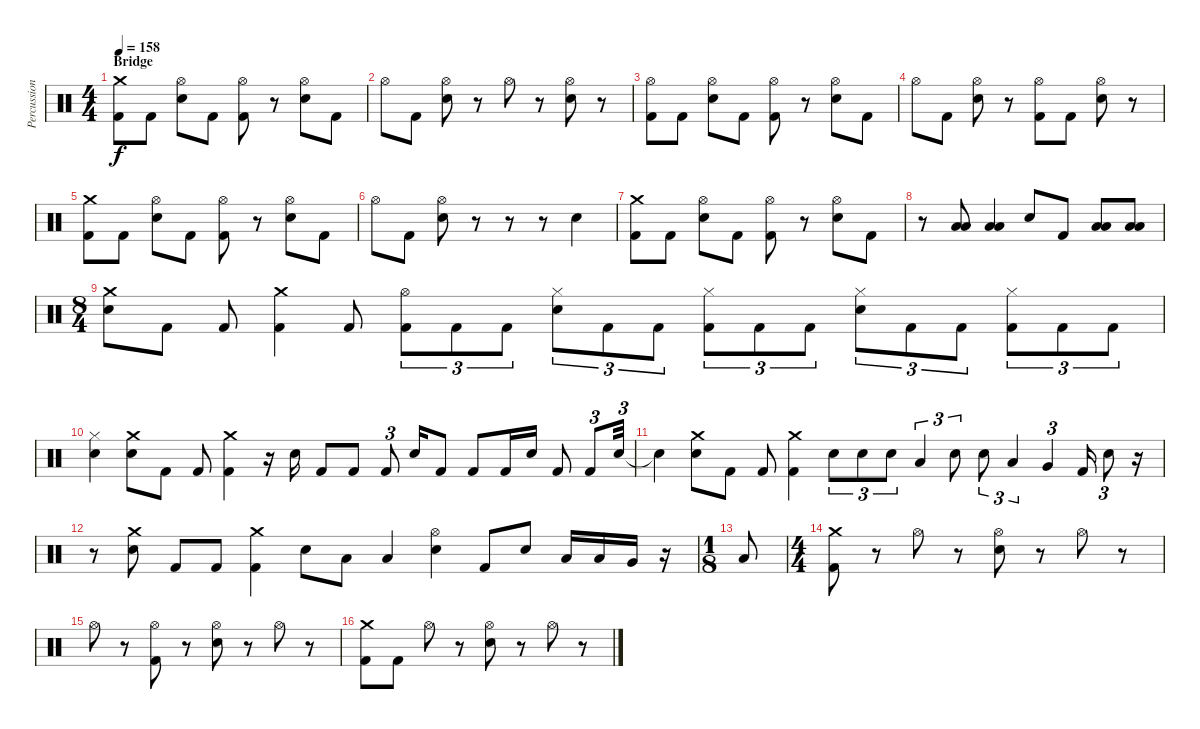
\track ("Percussion" "Percussion") {instrument percussion}
\staff {score}
\articulation defaults
\ts (4 4)
\section ("" "Bridge")
\tempo 158
\clef neutral
\ks c
("Crash medium (hit)" "Kick (hit) 2").8{dy f} "Kick (hit) 2".8 ("Hi-Hat (open)" "Electric Snare (hit)").8 "Kick (hit) 2".8 ("Hi-Hat (open)" "Kick (hit) 2").8 r.8 ("Hi-Hat (open)" "Electric Snare (hit)").8 "Kick (hit) 2".8 |
"Hi-Hat (open)".8 "Kick (hit) 2".8 ("Hi-Hat (open)" "Electric Snare (hit)").8 r.8 "Hi-Hat (open)".8 r.8 ("Hi-Hat (open)" "Electric Snare (hit)").8 r.8 |
("Hi-Hat (open)" "Kick (hit) 2").8 "Kick (hit) 2".8 ("Hi-Hat (open)" "Electric Snare (hit)").8 "Kick (hit) 2".8 ("Hi-Hat (open)" "Kick (hit) 2").8 r.8 ("Hi-Hat (open)" "Electric Snare (hit)").8 "Kick (hit) 2".8 |
"Hi-Hat (open)".8 "Kick (hit) 2".8 ("Hi-Hat (open)" "Electric Snare (hit)").8 r.8 ("Hi-Hat (open)" "Kick (hit) 2").8 "Kick (hit) 2".8 ("Hi-Hat (open)" "Electric Snare (hit)").8 r.8 |
("Crash medium (hit)" "Kick (hit) 2").8 "Kick (hit) 2".8 ("Hi-Hat (open)" "Electric Snare (hit)").8 "Kick (hit) 2".8 ("Hi-Hat (open)" "Kick (hit) 2").8 r.8 ("Hi-Hat (open)" "Electric Snare (hit)").8 "Kick (hit) 2".8 |
"Hi-Hat (open)".8 "Kick (hit) 2".8 ("Hi-Hat (open)" "Electric Snare (hit)").8 r.8 r.8 r.8 "Electric Snare (hit)".4 |
("Crash medium (hit)" "Kick (hit) 2").8 "Kick (hit) 2".8 ("Hi-Hat (open)" "Electric Snare (hit)").8 "Kick (hit) 2".8 ("Hi-Hat (open)" "Kick (hit) 2").8 r.8 ("Hi-Hat (open)" "Electric Snare (hit)").8 "Kick (hit) 2".8 |
r.8 ("Low Tom (hit)" "Low Tom (hit)").8 ("Low Tom (hit)" "Low Tom (hit)").4 "Electric Snare (hit)".8 "Kick (hit) 2".8 ("Low Tom (hit)" "Low Tom (hit)").8 ("Low Tom (hit)" "Low Tom (hit)").8 |
\ts (8 4)
("Crash medium (hit)" "Electric Snare (hit)").8 "Kick (hit) 2".8 "Kick (hit) 2".8 ("Crash medium (hit)" "Kick (hit) 2").4 "Kick (hit) 2".8 ("Hi-Hat (open)" "Kick (hit) 2").8{tu (3 2)} "Kick (hit) 2".8{tu (3 2)} "Kick (hit) 2".8{tu (3 2)} ("Hi-Hat (closed)" "Electric Snare (hit)").8{tu (3 2)} "Kick (hit) 2".8{tu (3 2)} "Kick (hit) 2".8{tu (3 2)} ("Hi-Hat (closed)" "Kick (hit) 2").8{tu (3 2)} "Kick (hit) 2".8{tu (3 2)} "Kick (hit) 2".8{tu (3 2)} ("Hi-Hat (closed)" "Electric Snare (hit)").8{tu (3 2)} "Kick (hit) 2".8{tu (3 2)} "Kick (hit) 2".8{tu (3 2)} ("Hi-Hat (closed)" "Kick (hit) 2").8{tu (3 2)} "Kick (hit) 2".8{tu (3 2)} "Kick (hit) 2".8{tu (3 2)} |
("Hi-Hat (closed)" "Electric Snare (hit)").4 ("Crash medium (hit)" "Electric Snare (hit)").8 "Kick (hit) 2".8 "Kick (hit) 2".8 ("Crash medium (hit)" "Kick (hit) 2").4 r.16 "Electric Snare (hit)".16 "Kick (hit) 2".8 "Kick (hit) 2".8 "Kick (hit) 2".8{tu (3 2)} "Electric Snare (hit)".16 "Kick (hit) 2".8 "Kick (hit) 2".8 "Kick (hit) 2".16 "Electric Snare (hit)".16 "Kick (hit) 2".8 "Kick (hit) 2".8{tu (3 2)} "Electric Snare (hit)".32{tu (3 2)} |
"Electric Snare (hit)"{t}.4 ("Crash medium (hit)" "Electric Snare (hit)").8 "Kick (hit) 2".8 "Kick (hit) 2".8 ("Crash medium (hit)" "Kick (hit) 2").4 "Electric Snare (hit)".8{tu (3 2)} "Electric Snare (hit)".8{tu (3 2)} "Electric Snare (hit)".8{tu (3 2)} "Low Tom (hit)".4{tu (3 2)} "Electric Snare (hit)".8{tu (3 2)} "Electric Snare (hit)".8{tu (3 2)} "Low Tom (hit)".4{tu (3 2)} "Very Low Tom (hit)".4{tu (3 2)} "Kick (hit) 2".16 "Electric Snare (hit)".8{tu (3 2)} r.16 |
r.8 ("Crash medium (hit)" "Electric Snare (hit)").8 "Kick (hit) 2".8 "Kick (hit) 2".8 ("Crash medium (hit)" "Kick (hit) 2").4 "Electric Snare (hit)".8 "Low Tom (hit)".8 "Low Tom (hit)".4 ("Hi-Hat (open)" "Electric Snare (hit)").4 "Kick (hit) 2".8 "Electric Snare (hit)".8 "Low Tom (hit)".16 "Low Tom (hit)".16 "Very Low Tom (hit)".16 r.16 |
\ts (1 8)
"Low Tom (hit)".8 |
\ts (4 4)
("Crash medium (hit)" "Kick (hit) 2").8 r.8 "Hi-Hat (open)".8 r.8 ("Hi-Hat (open)" "Electric Snare (hit)").8 r.8 "Hi-Hat (open)".8 r.8 |
"Hi-Hat (open)".8 r.8 ("Hi-Hat (open)" "Kick (hit) 2").8 r.8 ("Hi-Hat (open)" "Electric Snare (hit)").8 r.8 "Hi-Hat (open)".8 r.8 |
("Crash medium (hit)" "Kick (hit) 2").8 "Kick (hit) 2".8 "Hi-Hat (open)".8 r.8 ("Hi-Hat (open)" "Electric Snare (hit)").8 r.8 "Hi-Hat (open)".8 r.8
